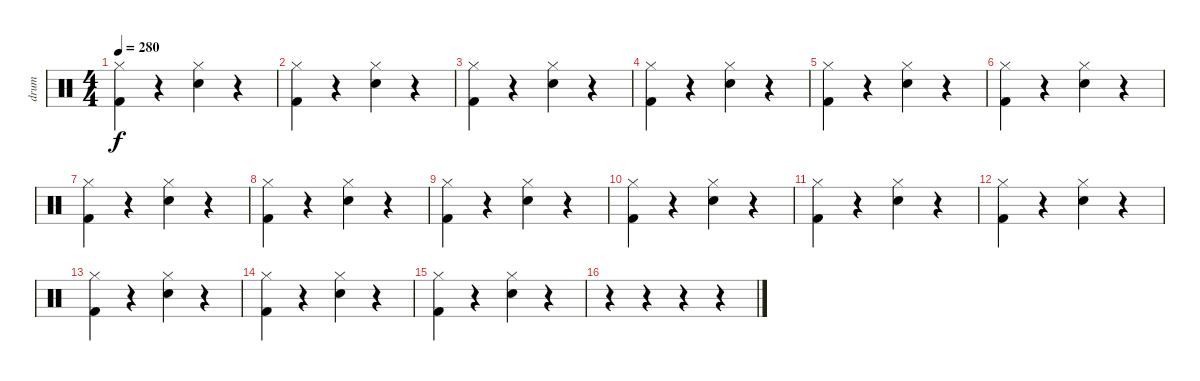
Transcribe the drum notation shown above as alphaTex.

\track ("drum" "drum") {instrument percussion}
\staff {score}
\articulation defaults
\ts (4 4)
\tempo 280
\clef neutral
\ks c
("Kick (hit) 2" "Hi-Hat (closed)").4{dy f} r.4 ("Hand Clap (hit)" "Hi-Hat (closed)").4 r.4 |
("Kick (hit) 2" "Hi-Hat (closed)").4 r.4 ("Hand Clap (hit)" "Hi-Hat (closed)").4 r.4 |
("Kick (hit) 2" "Hi-Hat (closed)").4 r.4 ("Hand Clap (hit)" "Hi-Hat (closed)").4 r.4 |
("Kick (hit) 2" "Hi-Hat (closed)").4 r.4 ("Hand Clap (hit)" "Hi-Hat (closed)").4 r.4 |
("Kick (hit) 2" "Hi-Hat (closed)").4 r.4 ("Hand Clap (hit)" "Hi-Hat (closed)").4 r.4 |
("Kick (hit) 2" "Hi-Hat (closed)").4 r.4 ("Hand Clap (hit)" "Hi-Hat (closed)").4 r.4 |
("Kick (hit) 2" "Hi-Hat (closed)").4 r.4 ("Hand Clap (hit)" "Hi-Hat (closed)").4 r.4 |
("Kick (hit) 2" "Hi-Hat (closed)").4 r.4 ("Hand Clap (hit)" "Hi-Hat (closed)").4 r.4 |
("Kick (hit) 2" "Hi-Hat (closed)").4 r.4 ("Hand Clap (hit)" "Hi-Hat (closed)").4 r.4 |
("Kick (hit) 2" "Hi-Hat (closed)").4 r.4 ("Hand Clap (hit)" "Hi-Hat (closed)").4 r.4 |
("Kick (hit) 2" "Hi-Hat (closed)").4 r.4 ("Hand Clap (hit)" "Hi-Hat (closed)").4 r.4 |
("Kick (hit) 2" "Hi-Hat (closed)").4 r.4 ("Hand Clap (hit)" "Hi-Hat (closed)").4 r.4 |
("Kick (hit) 2" "Hi-Hat (closed)").4 r.4 ("Hand Clap (hit)" "Hi-Hat (closed)").4 r.4 |
("Kick (hit) 2" "Hi-Hat (closed)").4 r.4 ("Hand Clap (hit)" "Hi-Hat (closed)").4 r.4 |
("Kick (hit) 2" "Hi-Hat (closed)").4 r.4 ("Hand Clap (hit)" "Hi-Hat (closed)").4 r.4 |
r.4 r.4 r.4 r.4
